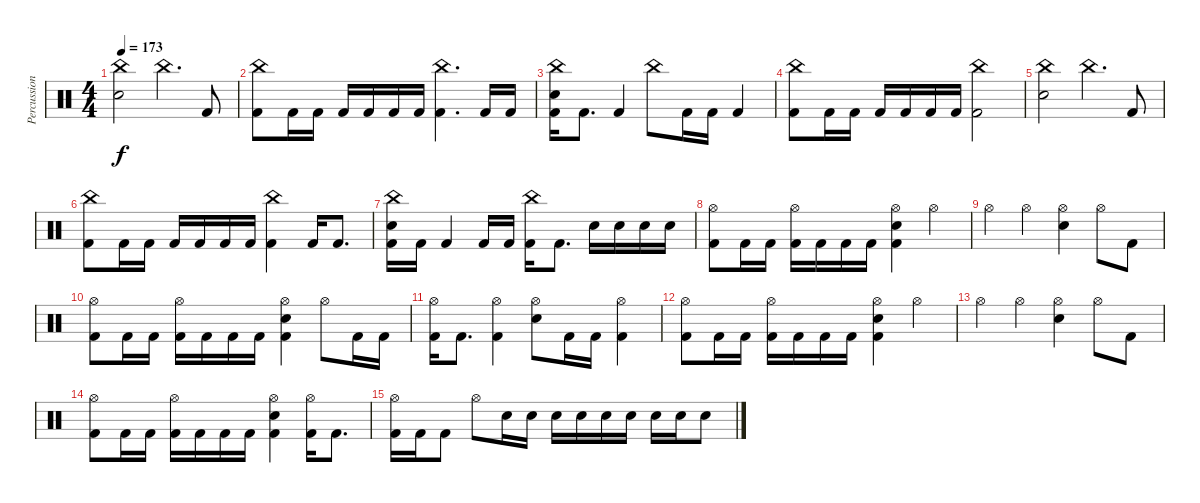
\track ("Percussion" "Percussion") {instrument percussion}
\staff {score}
\articulation defaults
\ts (4 4)
\tempo 173
\clef neutral
\ks c
("China (hit)" "Snare (hit) 2").2{dy f} "China (hit)".4{d} "Kick (hit) 2".8 |
("China (hit)" "Kick (hit) 2").8 "Kick (hit) 2".16 "Kick (hit) 2".16 "Kick (hit) 2".16 "Kick (hit) 2".16 "Kick (hit) 2".16 "Kick (hit) 2".16 ("China (hit)" "Kick (hit) 2").4{d} "Kick (hit) 2".16 "Kick (hit) 2".16 |
("China (hit)" "Snare (hit) 2" "Kick (hit) 2").16 "Kick (hit) 2".8{d} "Kick (hit) 2".4 "China (hit)".8 "Kick (hit) 2".16 "Kick (hit) 2".16 "Kick (hit) 2".4 |
("China (hit)" "Kick (hit) 2").8 "Kick (hit) 2".16 "Kick (hit) 2".16 "Kick (hit) 2".16 "Kick (hit) 2".16 "Kick (hit) 2".16 "Kick (hit) 2".16 ("China (hit)" "Kick (hit) 2").2 |
("China (hit)" "Snare (hit) 2").2 "China (hit)".4{d} "Kick (hit) 2".8 |
("China (hit)" "Kick (hit) 2").8 "Kick (hit) 2".16 "Kick (hit) 2".16 "Kick (hit) 2".16 "Kick (hit) 2".16 "Kick (hit) 2".16 "Kick (hit) 2".16 ("China (hit)" "Kick (hit) 2").4 "Kick (hit) 2".16 "Kick (hit) 2".8{d} |
("China (hit)" "Snare (hit) 2" "Kick (hit) 2").16 "Kick (hit) 2".16 "Kick (hit) 2".4 "Kick (hit) 2".16 "Kick (hit) 2".16 ("China (hit)" "Kick (hit) 2").16 "Kick (hit) 2".8{d} "Snare (hit) 2".16 "Snare (hit) 2".16 "Snare (hit) 2".16 "Snare (hit) 2".16 |
("Hi-Hat (open)" "Kick (hit) 2").8 "Kick (hit) 2".16 "Kick (hit) 2".16 ("Hi-Hat (open)" "Kick (hit) 2").16 "Kick (hit) 2".16 "Kick (hit) 2".16 "Kick (hit) 2".16 ("Hi-Hat (open)" "Snare (hit) 2" "Kick (hit) 2").4 "Hi-Hat (open)".4 |
"Hi-Hat (open)".4 "Hi-Hat (open)".4 ("Hi-Hat (open)" "Snare (hit) 2").4 "Hi-Hat (open)".8 "Kick (hit) 2".8 |
("Hi-Hat (open)" "Kick (hit) 2").8 "Kick (hit) 2".16 "Kick (hit) 2".16 ("Hi-Hat (open)" "Kick (hit) 2").16 "Kick (hit) 2".16 "Kick (hit) 2".16 "Kick (hit) 2".16 ("Hi-Hat (open)" "Snare (hit) 2" "Kick (hit) 2").4 "Hi-Hat (open)".8 "Kick (hit) 2".16 "Kick (hit) 2".16 |
("Hi-Hat (open)" "Kick (hit) 2").16 "Kick (hit) 2".8{d} ("Hi-Hat (open)" "Kick (hit) 2").4 ("Hi-Hat (open)" "Snare (hit) 2").8 "Kick (hit) 2".16 "Kick (hit) 2".16 ("Hi-Hat (open)" "Kick (hit) 2").4 |
("Hi-Hat (open)" "Kick (hit) 2").8 "Kick (hit) 2".16 "Kick (hit) 2".16 ("Hi-Hat (open)" "Kick (hit) 2").16 "Kick (hit) 2".16 "Kick (hit) 2".16 "Kick (hit) 2".16 ("Hi-Hat (open)" "Snare (hit) 2" "Kick (hit) 2").4 "Hi-Hat (open)".4 |
"Hi-Hat (open)".4 "Hi-Hat (open)".4 ("Hi-Hat (open)" "Snare (hit) 2").4 "Hi-Hat (open)".8 "Kick (hit) 2".8 |
("Hi-Hat (open)" "Kick (hit) 2").8 "Kick (hit) 2".16 "Kick (hit) 2".16 ("Hi-Hat (open)" "Kick (hit) 2").16 "Kick (hit) 2".16 "Kick (hit) 2".16 "Kick (hit) 2".16 ("Hi-Hat (open)" "Snare (hit) 2" "Kick (hit) 2").4 ("Hi-Hat (open)" "Kick (hit) 2").16 "Kick (hit) 2".8{d} |
("Hi-Hat (open)" "Kick (hit) 2").16 "Kick (hit) 2".16 "Kick (hit) 2".8 "Hi-Hat (open)".8 "Snare (hit) 2".16 "Snare (hit) 2".16 "Snare (hit) 2".16 "Snare (hit) 2".16 "Snare (hit) 2".16 "Snare (hit) 2".16 "Snare (hit) 2".16 "Snare (hit) 2".16 "Snare (hit) 2".8
